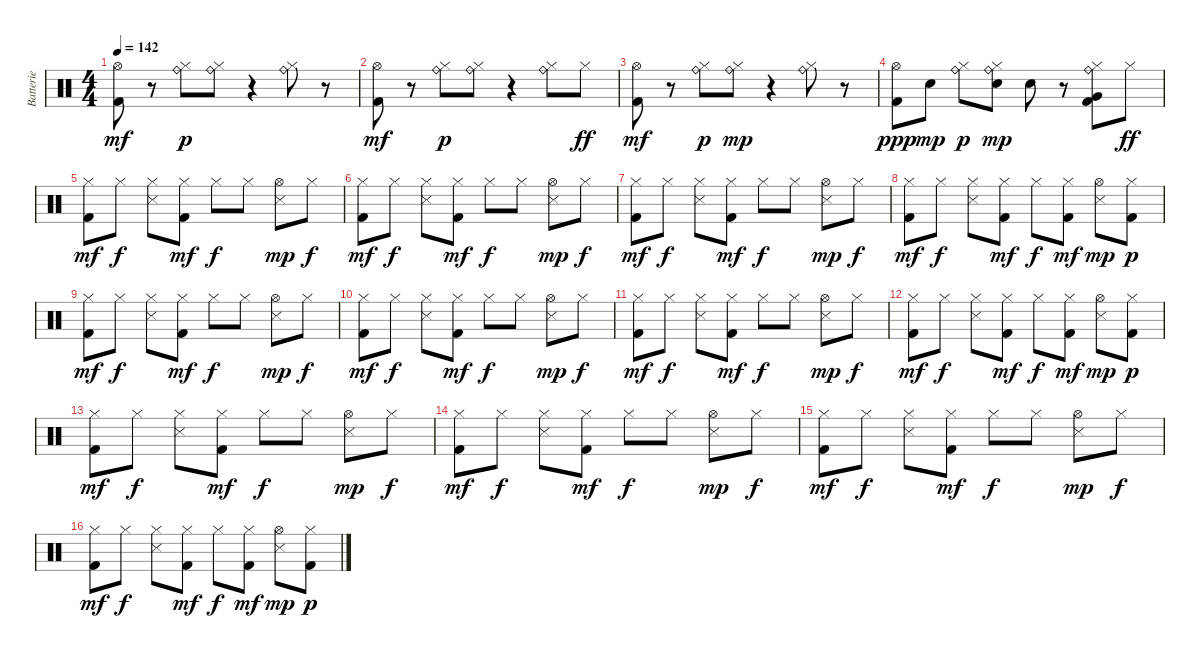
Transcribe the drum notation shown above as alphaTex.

\track ("Batterie" "Batterie") {instrument percussion}
\staff {score}
\articulation defaults
\ts (4 4)
\tempo 142
\clef neutral
\ks c
("Kick (hit) 2" "Hi-Hat (open)").8{dy mf} r.8 ("Hi-Hat (closed)" "Ride (bell)").8{dy p} ("Hi-Hat (closed)" "Ride (bell)").8 r.4 ("Hi-Hat (closed)" "Ride (bell)").8 r.8 |
("Kick (hit) 2" "Hi-Hat (open)").8{dy mf} r.8 ("Hi-Hat (closed)" "Ride (bell)").8{dy p} ("Hi-Hat (closed)" "Ride (bell)").8 r.4 ("Hi-Hat (closed)" "Ride (bell)").8 "Hi-Hat (closed)".8{dy ff} |
("Kick (hit) 2" "Hi-Hat (open)").8{dy mf} r.8 ("Hi-Hat (closed)" "Ride (bell)").8{dy p} ("Hi-Hat (closed)" "Ride (bell)").8{dy mp} r.4 ("Hi-Hat (closed)" "Ride (bell)").8 r.8 |
("Kick (hit) 2" "Hi-Hat (open)").8{dy ppp} "Electric Snare (hit)".8{dy mp} ("Hi-Hat (closed)" "Ride (bell)").8{dy p} ("Electric Snare (hit)" "Hi-Hat (closed)" "Ride (bell)").8{dy mp} "Electric Snare (hit)".8 r.8 ("Kick (hit) 2" "Hi-Hat (closed)" "Ride (bell)" "Very Low Tom (hit)").8 "Hi-Hat (closed)".8{dy ff} |
("Kick (hit) 2" "Hi-Hat (closed)").8{dy mf} "Hi-Hat (closed)".8{dy f} ("Hi-Hat (closed)" "Snare (side stick) 3").8 ("Kick (hit) 2" "Hi-Hat (closed)").8{dy mf} "Hi-Hat (closed)".8{dy f} "Hi-Hat (closed)".8 ("Hi-Hat (open)" "Snare (side stick) 3").8{dy mp} "Hi-Hat (closed)".8{dy f} |
("Kick (hit) 2" "Hi-Hat (closed)").8{dy mf} "Hi-Hat (closed)".8{dy f} ("Hi-Hat (closed)" "Snare (side stick) 3").8 ("Kick (hit) 2" "Hi-Hat (closed)").8{dy mf} "Hi-Hat (closed)".8{dy f} "Hi-Hat (closed)".8 ("Hi-Hat (open)" "Snare (side stick) 3").8{dy mp} "Hi-Hat (closed)".8{dy f} |
("Kick (hit) 2" "Hi-Hat (closed)").8{dy mf} "Hi-Hat (closed)".8{dy f} ("Hi-Hat (closed)" "Snare (side stick) 3").8 ("Kick (hit) 2" "Hi-Hat (closed)").8{dy mf} "Hi-Hat (closed)".8{dy f} "Hi-Hat (closed)".8 ("Hi-Hat (open)" "Snare (side stick) 3").8{dy mp} "Hi-Hat (closed)".8{dy f} |
("Kick (hit) 2" "Hi-Hat (closed)").8{dy mf} "Hi-Hat (closed)".8{dy f} ("Hi-Hat (closed)" "Snare (side stick) 3").8 ("Kick (hit) 2" "Hi-Hat (closed)").8{dy mf} "Hi-Hat (closed)".8{dy f} ("Kick (hit) 2" "Hi-Hat (closed)").8{dy mf} ("Hi-Hat (open)" "Snare (side stick) 3").8{dy mp} ("Kick (hit) 2" "Hi-Hat (closed)").8{dy p} |
("Kick (hit) 2" "Hi-Hat (closed)").8{dy mf} "Hi-Hat (closed)".8{dy f} ("Hi-Hat (closed)" "Snare (side stick) 3").8 ("Kick (hit) 2" "Hi-Hat (closed)").8{dy mf} "Hi-Hat (closed)".8{dy f} "Hi-Hat (closed)".8 ("Hi-Hat (open)" "Snare (side stick) 3").8{dy mp} "Hi-Hat (closed)".8{dy f} |
("Kick (hit) 2" "Hi-Hat (closed)").8{dy mf} "Hi-Hat (closed)".8{dy f} ("Hi-Hat (closed)" "Snare (side stick) 3").8 ("Kick (hit) 2" "Hi-Hat (closed)").8{dy mf} "Hi-Hat (closed)".8{dy f} "Hi-Hat (closed)".8 ("Hi-Hat (open)" "Snare (side stick) 3").8{dy mp} "Hi-Hat (closed)".8{dy f} |
("Kick (hit) 2" "Hi-Hat (closed)").8{dy mf} "Hi-Hat (closed)".8{dy f} ("Hi-Hat (closed)" "Snare (side stick) 3").8 ("Kick (hit) 2" "Hi-Hat (closed)").8{dy mf} "Hi-Hat (closed)".8{dy f} "Hi-Hat (closed)".8 ("Hi-Hat (open)" "Snare (side stick) 3").8{dy mp} "Hi-Hat (closed)".8{dy f} |
("Kick (hit) 2" "Hi-Hat (closed)").8{dy mf} "Hi-Hat (closed)".8{dy f} ("Hi-Hat (closed)" "Snare (side stick) 3").8 ("Kick (hit) 2" "Hi-Hat (closed)").8{dy mf} "Hi-Hat (closed)".8{dy f} ("Kick (hit) 2" "Hi-Hat (closed)").8{dy mf} ("Hi-Hat (open)" "Snare (side stick) 3").8{dy mp} ("Kick (hit) 2" "Hi-Hat (closed)").8{dy p} |
("Kick (hit) 2" "Hi-Hat (closed)").8{dy mf} "Hi-Hat (closed)".8{dy f} ("Hi-Hat (closed)" "Snare (side stick) 3").8 ("Kick (hit) 2" "Hi-Hat (closed)").8{dy mf} "Hi-Hat (closed)".8{dy f} "Hi-Hat (closed)".8 ("Hi-Hat (open)" "Snare (side stick) 3").8{dy mp} "Hi-Hat (closed)".8{dy f} |
("Kick (hit) 2" "Hi-Hat (closed)").8{dy mf} "Hi-Hat (closed)".8{dy f} ("Hi-Hat (closed)" "Snare (side stick) 3").8 ("Kick (hit) 2" "Hi-Hat (closed)").8{dy mf} "Hi-Hat (closed)".8{dy f} "Hi-Hat (closed)".8 ("Hi-Hat (open)" "Snare (side stick) 3").8{dy mp} "Hi-Hat (closed)".8{dy f} |
("Kick (hit) 2" "Hi-Hat (closed)").8{dy mf} "Hi-Hat (closed)".8{dy f} ("Hi-Hat (closed)" "Snare (side stick) 3").8 ("Kick (hit) 2" "Hi-Hat (closed)").8{dy mf} "Hi-Hat (closed)".8{dy f} "Hi-Hat (closed)".8 ("Hi-Hat (open)" "Snare (side stick) 3").8{dy mp} "Hi-Hat (closed)".8{dy f} |
("Kick (hit) 2" "Hi-Hat (closed)").8{dy mf} "Hi-Hat (closed)".8{dy f} ("Hi-Hat (closed)" "Snare (side stick) 3").8 ("Kick (hit) 2" "Hi-Hat (closed)").8{dy mf} "Hi-Hat (closed)".8{dy f} ("Kick (hit) 2" "Hi-Hat (closed)").8{dy mf} ("Hi-Hat (open)" "Snare (side stick) 3").8{dy mp} ("Kick (hit) 2" "Hi-Hat (closed)").8{dy p}
